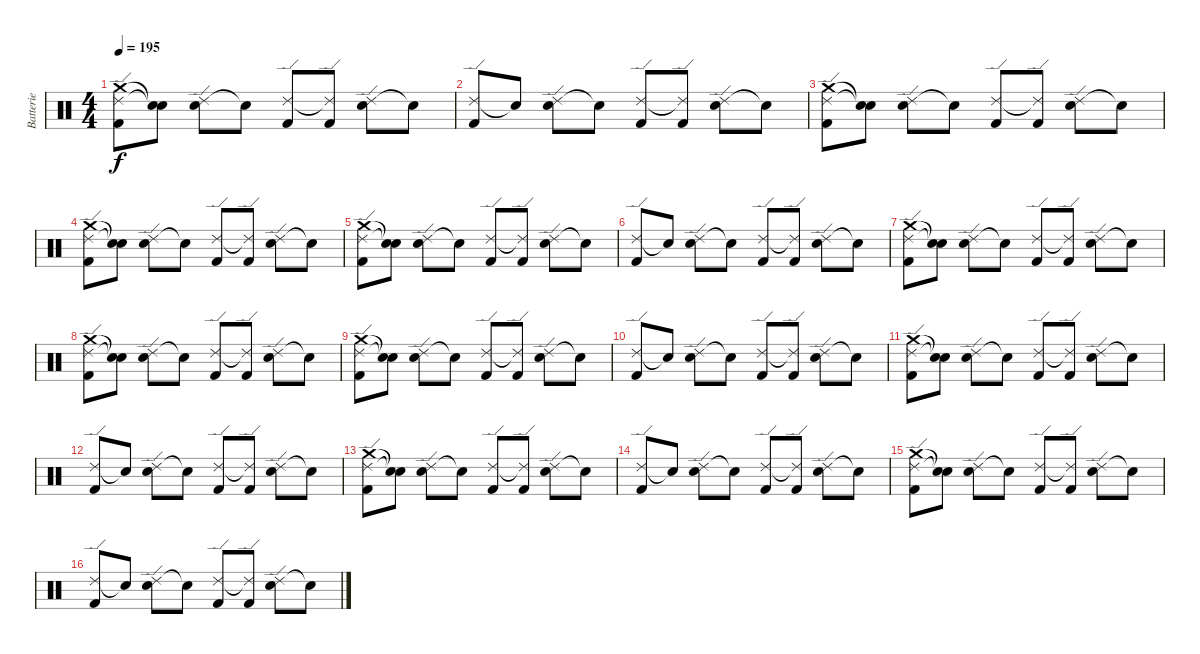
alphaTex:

\track ("Batterie" "Batterie") {instrument percussion}
\staff {score}
\articulation defaults
\ts (4 4)
\tempo 195
\clef neutral
\ks c
("Crash medium (hit)" "Ride (edge) 2" "Kick (hit) 2").8{dy f} ("Snare (hit)"{t} "Snare (hit)"{t}).8 ("Ride (edge) 2" "Electric Snare (hit)").8 "Snare (hit)"{t}.8 ("Ride (edge) 2" "Kick (hit) 2").8 ("Ride (edge) 2"{t} "Kick (hit) 2").8 ("Ride (edge) 2" "Electric Snare (hit)").8 "Snare (hit)"{t}.8 |
("Ride (edge) 2" "Kick (hit) 2").8 "Snare (hit)"{t}.8 ("Ride (edge) 2" "Electric Snare (hit)").8 "Snare (hit)"{t}.8 ("Ride (edge) 2" "Kick (hit) 2").8 ("Ride (edge) 2"{t} "Kick (hit) 2").8 ("Ride (edge) 2" "Electric Snare (hit)").8 "Snare (hit)"{t}.8 |
("Crash medium (hit)" "Ride (edge) 2" "Kick (hit) 2").8 ("Snare (hit)"{t} "Snare (hit)"{t}).8 ("Ride (edge) 2" "Electric Snare (hit)").8 "Snare (hit)"{t}.8 ("Ride (edge) 2" "Kick (hit) 2").8 ("Ride (edge) 2"{t} "Kick (hit) 2").8 ("Ride (edge) 2" "Electric Snare (hit)").8 "Snare (hit)"{t}.8 |
("Crash medium (hit)" "Ride (edge) 2" "Kick (hit) 2").8 ("Snare (hit)"{t} "Snare (hit)"{t}).8 ("Ride (edge) 2" "Electric Snare (hit)").8 "Snare (hit)"{t}.8 ("Ride (edge) 2" "Kick (hit) 2").8 ("Ride (edge) 2"{t} "Kick (hit) 2").8 ("Ride (edge) 2" "Electric Snare (hit)").8 "Snare (hit)"{t}.8 |
("Crash medium (hit)" "Ride (edge) 2" "Kick (hit) 2").8 ("Snare (hit)"{t} "Snare (hit)"{t}).8 ("Ride (edge) 2" "Electric Snare (hit)").8 "Snare (hit)"{t}.8 ("Ride (edge) 2" "Kick (hit) 2").8 ("Ride (edge) 2"{t} "Kick (hit) 2").8 ("Ride (edge) 2" "Electric Snare (hit)").8 "Snare (hit)"{t}.8 |
("Ride (edge) 2" "Kick (hit) 2").8 "Snare (hit)"{t}.8 ("Ride (edge) 2" "Electric Snare (hit)").8 "Snare (hit)"{t}.8 ("Ride (edge) 2" "Kick (hit) 2").8 ("Ride (edge) 2"{t} "Kick (hit) 2").8 ("Ride (edge) 2" "Electric Snare (hit)").8 "Snare (hit)"{t}.8 |
("Crash medium (hit)" "Ride (edge) 2" "Kick (hit) 2").8 ("Snare (hit)"{t} "Snare (hit)"{t}).8 ("Ride (edge) 2" "Electric Snare (hit)").8 "Snare (hit)"{t}.8 ("Ride (edge) 2" "Kick (hit) 2").8 ("Ride (edge) 2"{t} "Kick (hit) 2").8 ("Ride (edge) 2" "Electric Snare (hit)").8 "Snare (hit)"{t}.8 |
("Crash medium (hit)" "Ride (edge) 2" "Kick (hit) 2").8 ("Snare (hit)"{t} "Snare (hit)"{t}).8 ("Ride (edge) 2" "Electric Snare (hit)").8 "Snare (hit)"{t}.8 ("Ride (edge) 2" "Kick (hit) 2").8 ("Ride (edge) 2"{t} "Kick (hit) 2").8 ("Ride (edge) 2" "Electric Snare (hit)").8 "Snare (hit)"{t}.8 |
("Crash medium (hit)" "Ride (edge) 2" "Kick (hit) 2").8 ("Snare (hit)"{t} "Snare (hit)"{t}).8 ("Ride (edge) 2" "Electric Snare (hit)").8 "Snare (hit)"{t}.8 ("Ride (edge) 2" "Kick (hit) 2").8 ("Ride (edge) 2"{t} "Kick (hit) 2").8 ("Ride (edge) 2" "Electric Snare (hit)").8 "Snare (hit)"{t}.8 |
("Ride (edge) 2" "Kick (hit) 2").8 "Snare (hit)"{t}.8 ("Ride (edge) 2" "Electric Snare (hit)").8 "Snare (hit)"{t}.8 ("Ride (edge) 2" "Kick (hit) 2").8 ("Ride (edge) 2"{t} "Kick (hit) 2").8 ("Ride (edge) 2" "Electric Snare (hit)").8 "Snare (hit)"{t}.8 |
("Crash medium (hit)" "Ride (edge) 2" "Kick (hit) 2").8 ("Snare (hit)"{t} "Snare (hit)"{t}).8 ("Ride (edge) 2" "Electric Snare (hit)").8 "Snare (hit)"{t}.8 ("Ride (edge) 2" "Kick (hit) 2").8 ("Ride (edge) 2"{t} "Kick (hit) 2").8 ("Ride (edge) 2" "Electric Snare (hit)").8 "Snare (hit)"{t}.8 |
("Ride (edge) 2" "Kick (hit) 2").8 "Snare (hit)"{t}.8 ("Ride (edge) 2" "Electric Snare (hit)").8 "Snare (hit)"{t}.8 ("Ride (edge) 2" "Kick (hit) 2").8 ("Ride (edge) 2"{t} "Kick (hit) 2").8 ("Ride (edge) 2" "Electric Snare (hit)").8 "Snare (hit)"{t}.8 |
("Crash medium (hit)" "Ride (edge) 2" "Kick (hit) 2").8 ("Snare (hit)"{t} "Snare (hit)"{t}).8 ("Ride (edge) 2" "Electric Snare (hit)").8 "Snare (hit)"{t}.8 ("Ride (edge) 2" "Kick (hit) 2").8 ("Ride (edge) 2"{t} "Kick (hit) 2").8 ("Ride (edge) 2" "Electric Snare (hit)").8 "Snare (hit)"{t}.8 |
("Ride (edge) 2" "Kick (hit) 2").8 "Snare (hit)"{t}.8 ("Ride (edge) 2" "Electric Snare (hit)").8 "Snare (hit)"{t}.8 ("Ride (edge) 2" "Kick (hit) 2").8 ("Ride (edge) 2"{t} "Kick (hit) 2").8 ("Ride (edge) 2" "Electric Snare (hit)").8 "Snare (hit)"{t}.8 |
("Crash medium (hit)" "Ride (edge) 2" "Kick (hit) 2").8 ("Snare (hit)"{t} "Snare (hit)"{t}).8 ("Ride (edge) 2" "Electric Snare (hit)").8 "Snare (hit)"{t}.8 ("Ride (edge) 2" "Kick (hit) 2").8 ("Ride (edge) 2"{t} "Kick (hit) 2").8 ("Ride (edge) 2" "Electric Snare (hit)").8 "Snare (hit)"{t}.8 |
("Ride (edge) 2" "Kick (hit) 2").8 "Snare (hit)"{t}.8 ("Ride (edge) 2" "Electric Snare (hit)").8 "Snare (hit)"{t}.8 ("Ride (edge) 2" "Kick (hit) 2").8 ("Ride (edge) 2"{t} "Kick (hit) 2").8 ("Ride (edge) 2" "Electric Snare (hit)").8 "Snare (hit)"{t}.8
